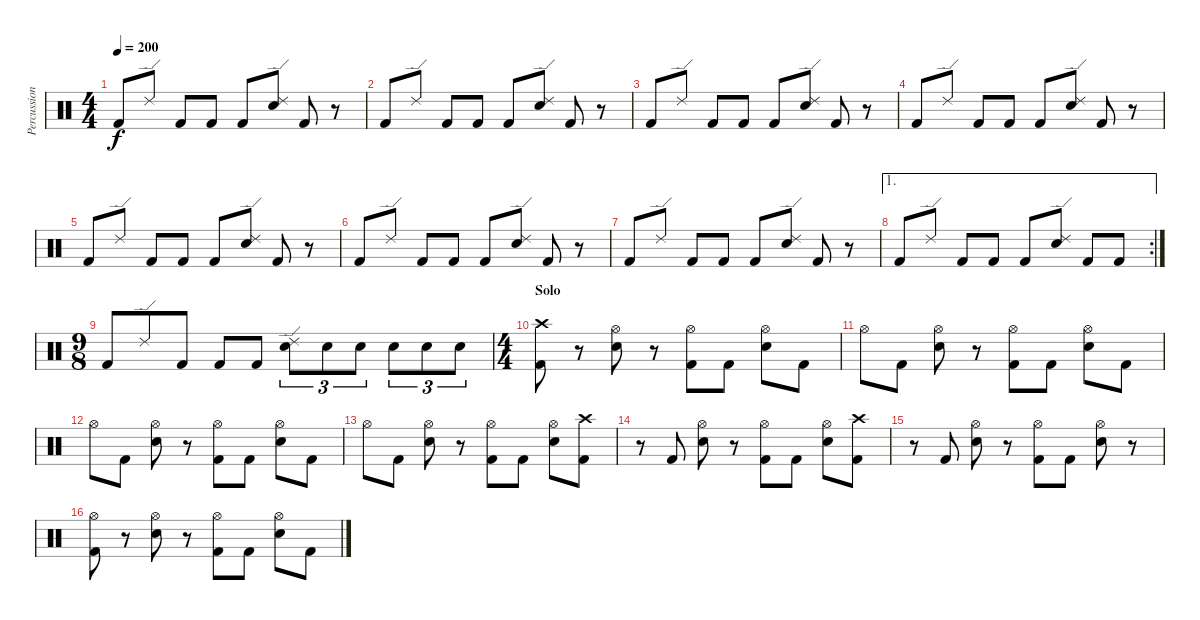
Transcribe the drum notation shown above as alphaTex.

\track ("Percussion" "Percussion") {instrument percussion}
\staff {score}
\articulation defaults
\ts (4 4)
\tempo 200
\clef neutral
\ks c "Kick (hit) 2".8{dy f} "Ride (edge) 2".8 "Kick (hit) 2".8 "Kick (hit) 2".8 "Kick (hit) 2".8
("Ride (edge) 2" "Electric Snare (hit)").8 "Kick (hit) 2".8 r.8 |
"Kick (hit) 2".8 "Ride (edge) 2".8 "Kick (hit) 2".8 "Kick (hit) 2".8 "Kick (hit) 2".8 ("Ride (edge) 2" "Electric Snare (hit)").8 "Kick (hit) 2".8 r.8 |
"Kick (hit) 2".8 "Ride (edge) 2".8 "Kick (hit) 2".8 "Kick (hit) 2".8 "Kick (hit) 2".8 ("Ride (edge) 2" "Electric Snare (hit)").8 "Kick (hit) 2".8 r.8 |
"Kick (hit) 2".8 "Ride (edge) 2".8 "Kick (hit) 2".8 "Kick (hit) 2".8 "Kick (hit) 2".8 ("Ride (edge) 2" "Electric Snare (hit)").8 "Kick (hit) 2".8 r.8 |
"Kick (hit) 2".8 "Ride (edge) 2".8 "Kick (hit) 2".8 "Kick (hit) 2".8 "Kick (hit) 2".8 ("Ride (edge) 2" "Electric Snare (hit)").8 "Kick (hit) 2".8 r.8 |
"Kick (hit) 2".8 "Ride (edge) 2".8 "Kick (hit) 2".8 "Kick (hit) 2".8 "Kick (hit) 2".8 ("Ride (edge) 2" "Electric Snare (hit)").8 "Kick (hit) 2".8 r.8 |
"Kick (hit) 2".8 "Ride (edge) 2".8 "Kick (hit) 2".8 "Kick (hit) 2".8 "Kick (hit) 2".8 ("Ride (edge) 2" "Electric Snare (hit)").8 "Kick (hit) 2".8 r.8 |
\ae 1
\rc 2 "Kick (hit) 2".8 "Ride (edge) 2".8 "Kick (hit) 2".8 "Kick (hit) 2".8 "Kick (hit) 2".8
("Ride (edge) 2" "Electric Snare (hit)").8 "Kick (hit) 2".8 "Kick (hit) 2".8 |
\ts (9 8)
"Kick (hit) 2".8 "Ride (edge) 2".8 "Kick (hit) 2".8 "Kick (hit) 2".8 "Kick (hit) 2".8 ("Ride (edge) 2" "Electric Snare (hit)").8{tu (3 2)} "Electric Snare (hit)".8{tu (3 2)} "Electric Snare (hit)".8{tu (3 2)} "Electric Snare (hit)".8{tu (3 2)} "Electric Snare (hit)".8{tu (3 2)} "Electric Snare (hit)".8{tu (3 2)} |
\ts (4 4)
\section ("" "Solo")
("Crash high (hit)" "Kick (hit) 2").8 r.8 ("Hi-Hat (open)" "Electric Snare (hit)").8 r.8 ("Hi-Hat (open)" "Kick (hit) 2").8 "Kick (hit) 2".8 ("Hi-Hat (open)" "Electric Snare (hit)").8 "Kick (hit) 2".8 |
"Hi-Hat (open)".8 "Kick (hit) 2".8 ("Hi-Hat (open)" "Electric Snare (hit)").8 r.8 ("Hi-Hat (open)" "Kick (hit) 2").8 "Kick (hit) 2".8 ("Hi-Hat (open)" "Electric Snare (hit)").8 "Kick (hit) 2".8 |
"Hi-Hat (open)".8 "Kick (hit) 2".8 ("Hi-Hat (open)" "Electric Snare (hit)").8 r.8 ("Hi-Hat (open)" "Kick (hit) 2").8 "Kick (hit) 2".8 ("Hi-Hat (open)" "Electric Snare (hit)").8 "Kick (hit) 2".8 |
"Hi-Hat (open)".8 "Kick (hit) 2".8 ("Hi-Hat (open)" "Electric Snare (hit)").8 r.8 ("Hi-Hat (open)" "Kick (hit) 2").8 "Kick (hit) 2".8 ("Hi-Hat (open)" "Electric Snare (hit)").8 ("Crash high (hit)" "Kick (hit) 2").8 |
r.8 "Kick (hit) 2".8 ("Hi-Hat (open)" "Electric Snare (hit)").8 r.8 ("Hi-Hat (open)" "Kick (hit) 2").8 "Kick (hit) 2".8 ("Hi-Hat (open)" "Electric Snare (hit)").8 ("Crash high (hit)" "Kick (hit) 2").8 |
r.8 "Kick (hit) 2".8 ("Hi-Hat (open)" "Electric Snare (hit)").8 r.8 ("Hi-Hat (open)" "Kick (hit) 2").8 "Kick (hit) 2".8 ("Hi-Hat (open)" "Electric Snare (hit)").8 r.8 |
("Hi-Hat (open)" "Kick (hit) 2").8 r.8 ("Hi-Hat (open)" "Electric Snare (hit)").8 r.8 ("Hi-Hat (open)" "Kick (hit) 2").8 "Kick (hit) 2".8 ("Hi-Hat (open)" "Electric Snare (hit)").8 "Kick (hit) 2".8
